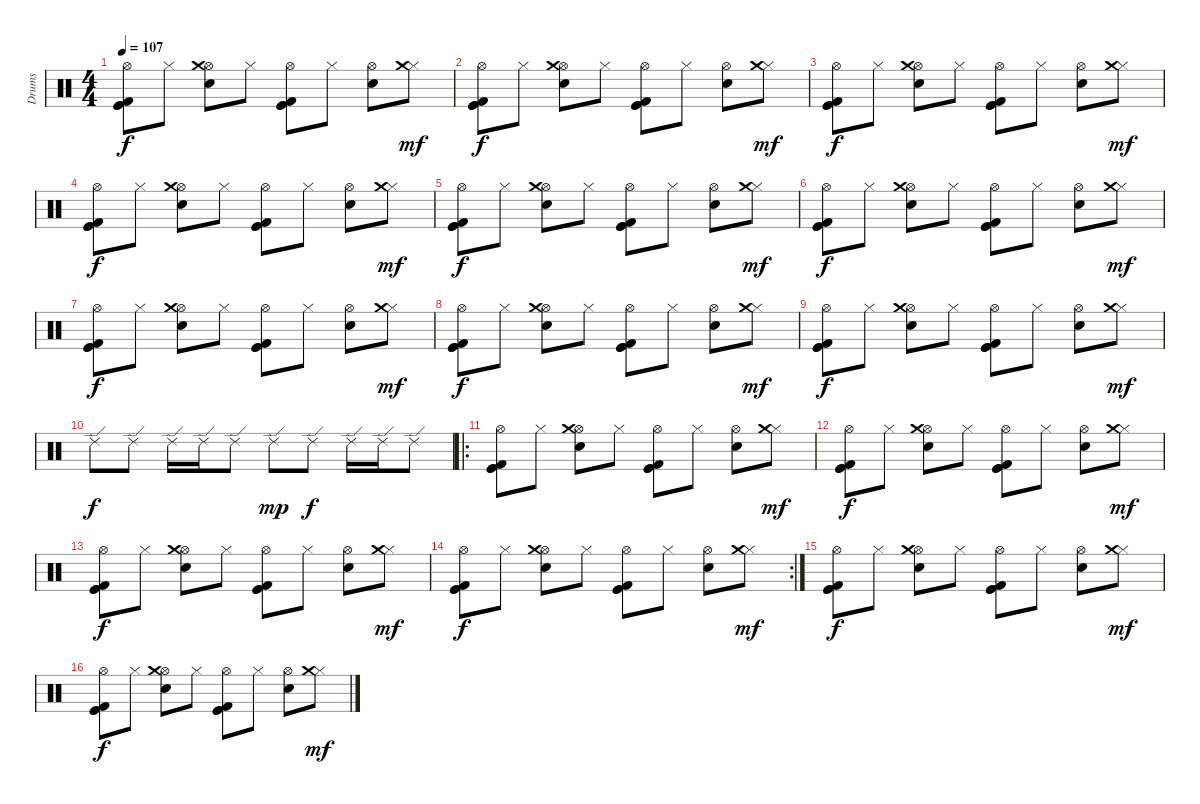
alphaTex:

\track ("Drums" "Drums") {instrument percussion}
\staff {score}
\articulation defaults
\ts (4 4)
\tempo 107
\clef neutral
\ks c
("Hi-Hat (open)" "Kick (hit) 2" "Kick (hit)" "Kick (hit)").8{dy f} "Hi-Hat (closed)".8 ("Hi-Hat (open)" "Crash medium (hit)" "Snare (hit) 2").8 "Hi-Hat (closed)".8 ("Hi-Hat (open)" "Kick (hit) 2" "Kick (hit)" "Kick (hit)").8 "Hi-Hat (closed)".8 ("Hi-Hat (open)" "Electric Snare (hit)").8 ("Hi-Hat (closed)" "Crash medium (hit)").8{dy mf} |
("Hi-Hat (open)" "Kick (hit) 2" "Kick (hit)" "Kick (hit)").8{dy f} "Hi-Hat (closed)".8 ("Hi-Hat (open)" "Crash medium (hit)" "Snare (hit) 2").8 "Hi-Hat (closed)".8 ("Hi-Hat (open)" "Kick (hit) 2" "Kick (hit)" "Kick (hit)").8 "Hi-Hat (closed)".8 ("Hi-Hat (open)" "Electric Snare (hit)").8 ("Hi-Hat (closed)" "Crash medium (hit)").8{dy mf} |
("Hi-Hat (open)" "Kick (hit) 2" "Kick (hit)" "Kick (hit)").8{dy f} "Hi-Hat (closed)".8 ("Hi-Hat (open)" "Crash medium (hit)" "Snare (hit) 2").8 "Hi-Hat (closed)".8 ("Hi-Hat (open)" "Kick (hit) 2" "Kick (hit)" "Kick (hit)").8 "Hi-Hat (closed)".8 ("Hi-Hat (open)" "Electric Snare (hit)").8 ("Hi-Hat (closed)" "Crash medium (hit)").8{dy mf} |
("Hi-Hat (open)" "Kick (hit) 2" "Kick (hit)" "Kick (hit)").8{dy f} "Hi-Hat (closed)".8 ("Hi-Hat (open)" "Crash medium (hit)" "Snare (hit) 2").8 "Hi-Hat (closed)".8 ("Hi-Hat (open)" "Kick (hit) 2" "Kick (hit)" "Kick (hit)").8 "Hi-Hat (closed)".8 ("Hi-Hat (open)" "Electric Snare (hit)").8 ("Hi-Hat (closed)" "Crash medium (hit)").8{dy mf} |
("Hi-Hat (open)" "Kick (hit) 2" "Kick (hit)" "Kick (hit)").8{dy f} "Hi-Hat (closed)".8 ("Hi-Hat (open)" "Crash medium (hit)" "Snare (hit) 2").8 "Hi-Hat (closed)".8 ("Hi-Hat (open)" "Kick (hit) 2" "Kick (hit)" "Kick (hit)").8 "Hi-Hat (closed)".8 ("Hi-Hat (open)" "Electric Snare (hit)").8 ("Hi-Hat (closed)" "Crash medium (hit)").8{dy mf} |
("Hi-Hat (open)" "Kick (hit) 2" "Kick (hit)" "Kick (hit)").8{dy f} "Hi-Hat (closed)".8 ("Hi-Hat (open)" "Crash medium (hit)" "Snare (hit) 2").8 "Hi-Hat (closed)".8 ("Hi-Hat (open)" "Kick (hit) 2" "Kick (hit)" "Kick (hit)").8 "Hi-Hat (closed)".8 ("Hi-Hat (open)" "Electric Snare (hit)").8 ("Hi-Hat (closed)" "Crash medium (hit)").8{dy mf} |
("Hi-Hat (open)" "Kick (hit) 2" "Kick (hit)" "Kick (hit)").8{dy f} "Hi-Hat (closed)".8 ("Hi-Hat (open)" "Crash medium (hit)" "Snare (hit) 2").8 "Hi-Hat (closed)".8 ("Hi-Hat (open)" "Kick (hit) 2" "Kick (hit)" "Kick (hit)").8 "Hi-Hat (closed)".8 ("Hi-Hat (open)" "Electric Snare (hit)").8 ("Hi-Hat (closed)" "Crash medium (hit)").8{dy mf} |
("Hi-Hat (open)" "Kick (hit) 2" "Kick (hit)" "Kick (hit)").8{dy f} "Hi-Hat (closed)".8 ("Hi-Hat (open)" "Crash medium (hit)" "Snare (hit) 2").8 "Hi-Hat (closed)".8 ("Hi-Hat (open)" "Kick (hit) 2" "Kick (hit)" "Kick (hit)").8 "Hi-Hat (closed)".8 ("Hi-Hat (open)" "Electric Snare (hit)").8 ("Hi-Hat (closed)" "Crash medium (hit)").8{dy mf} |
("Hi-Hat (open)" "Kick (hit) 2" "Kick (hit)" "Kick (hit)").8{dy f} "Hi-Hat (closed)".8 ("Hi-Hat (open)" "Crash medium (hit)" "Snare (hit) 2").8 "Hi-Hat (closed)".8 ("Hi-Hat (open)" "Kick (hit) 2" "Kick (hit)" "Kick (hit)").8 "Hi-Hat (closed)".8 ("Hi-Hat (open)" "Electric Snare (hit)").8 ("Hi-Hat (closed)" "Crash medium (hit)").8{dy mf} |
"Ride (edge) 2".8{dy f} "Ride (edge) 2".8 "Ride (edge) 2".16 "Ride (edge) 2".16 "Ride (edge) 2".8 "Ride (edge) 2".8{dy mp} "Ride (edge) 2".8{dy f} "Ride (edge) 2".16 "Ride (edge) 2".16 "Ride (edge) 2".8 |
\ro
("Hi-Hat (open)" "Kick (hit) 2" "Kick (hit)" "Kick (hit)").8 "Hi-Hat (closed)".8 ("Hi-Hat (open)" "Crash medium (hit)" "Snare (hit) 2").8 "Hi-Hat (closed)".8 ("Hi-Hat (open)" "Kick (hit) 2" "Kick (hit)" "Kick (hit)").8 "Hi-Hat (closed)".8 ("Hi-Hat (open)" "Electric Snare (hit)").8 ("Hi-Hat (closed)" "Crash medium (hit)").8{dy mf} |
("Hi-Hat (open)" "Kick (hit) 2" "Kick (hit)" "Kick (hit)").8{dy f} "Hi-Hat (closed)".8 ("Hi-Hat (open)" "Crash medium (hit)" "Snare (hit) 2").8 "Hi-Hat (closed)".8 ("Hi-Hat (open)" "Kick (hit) 2" "Kick (hit)" "Kick (hit)").8 "Hi-Hat (closed)".8 ("Hi-Hat (open)" "Electric Snare (hit)").8 ("Hi-Hat (closed)" "Crash medium (hit)").8{dy mf} |
("Hi-Hat (open)" "Kick (hit) 2" "Kick (hit)" "Kick (hit)").8{dy f} "Hi-Hat (closed)".8 ("Hi-Hat (open)" "Crash medium (hit)" "Snare (hit) 2").8 "Hi-Hat (closed)".8 ("Hi-Hat (open)" "Kick (hit) 2" "Kick (hit)" "Kick (hit)").8 "Hi-Hat (closed)".8 ("Hi-Hat (open)" "Electric Snare (hit)").8 ("Hi-Hat (closed)" "Crash medium (hit)").8{dy mf} |
\rc 2
("Hi-Hat (open)" "Kick (hit) 2" "Kick (hit)" "Kick (hit)").8{dy f} "Hi-Hat (closed)".8 ("Hi-Hat (open)" "Crash medium (hit)" "Snare (hit) 2").8 "Hi-Hat (closed)".8 ("Hi-Hat (open)" "Kick (hit) 2" "Kick (hit)" "Kick (hit)").8 "Hi-Hat (closed)".8 ("Hi-Hat (open)" "Electric Snare (hit)").8 ("Hi-Hat (closed)" "Crash medium (hit)").8{dy mf} |
("Hi-Hat (open)" "Kick (hit) 2" "Kick (hit)" "Kick (hit)").8{dy f} "Hi-Hat (closed)".8 ("Hi-Hat (open)" "Crash medium (hit)" "Snare (hit) 2").8 "Hi-Hat (closed)".8 ("Hi-Hat (open)" "Kick (hit) 2" "Kick (hit)" "Kick (hit)").8 "Hi-Hat (closed)".8 ("Hi-Hat (open)" "Electric Snare (hit)").8 ("Hi-Hat (closed)" "Crash medium (hit)").8{dy mf} |
("Hi-Hat (open)" "Kick (hit) 2" "Kick (hit)" "Kick (hit)").8{dy f} "Hi-Hat (closed)".8 ("Hi-Hat (open)" "Crash medium (hit)" "Snare (hit) 2").8 "Hi-Hat (closed)".8 ("Hi-Hat (open)" "Kick (hit) 2" "Kick (hit)" "Kick (hit)").8 "Hi-Hat (closed)".8 ("Hi-Hat (open)" "Electric Snare (hit)").8 ("Hi-Hat (closed)" "Crash medium (hit)").8{dy mf}
